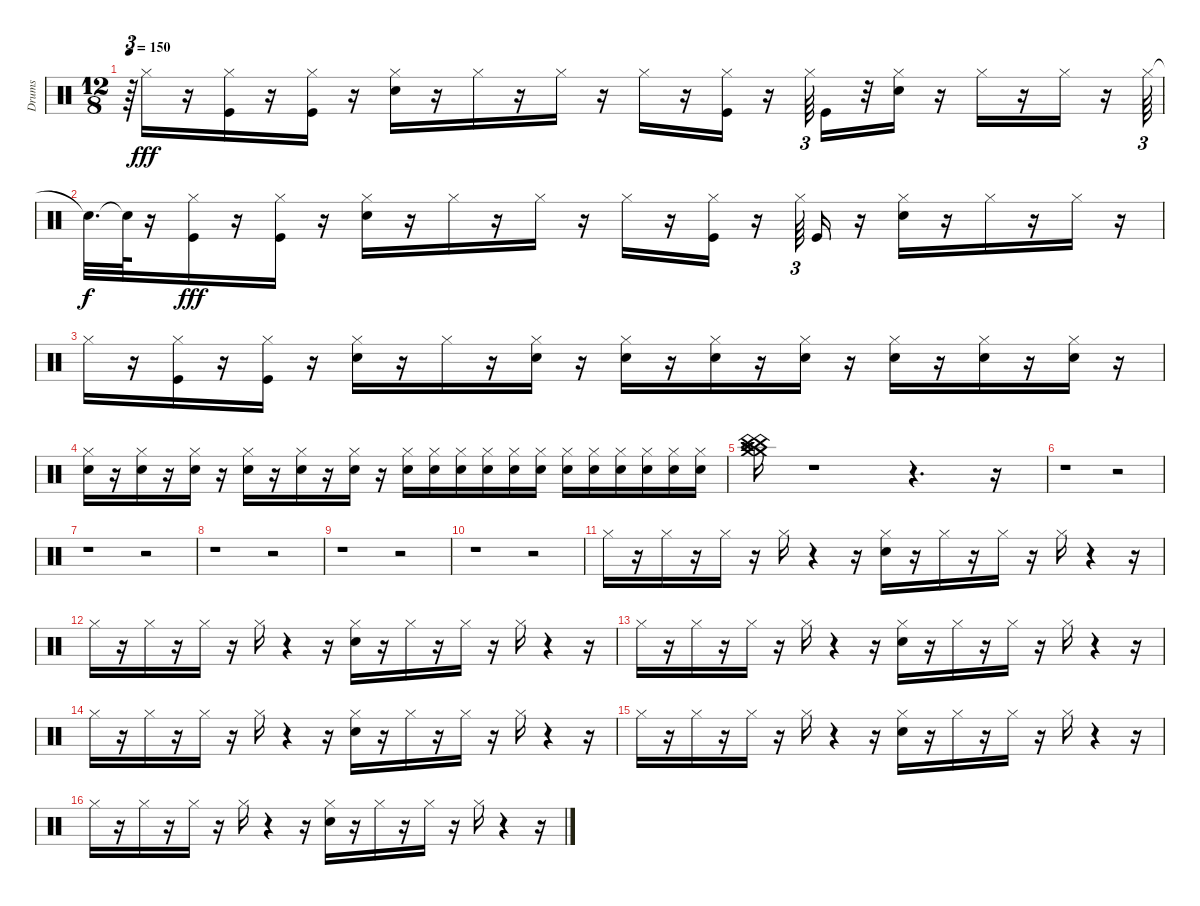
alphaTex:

\track ("Drums" "Drums") {instrument percussion}
\staff {score}
\articulation defaults
\ts (12 8)
\tempo 150
\clef neutral
\ks c
r.64{tu (3 2) dy fff} "Hi-Hat (closed)".16 r.16 ("Hi-Hat (closed)" "Kick (hit)").16 r.16 ("Hi-Hat (closed)" "Kick (hit)").16 r.16 ("Hi-Hat (closed)" "Snare (hit) 2").16 r.16 "Hi-Hat (closed)".16 r.16 "Hi-Hat (closed)".16 r.16 "Hi-Hat (closed)".16 r.16 ("Hi-Hat (closed)" "Kick (hit)").16 r.16 "Hi-Hat (closed)".64{tu (3 2)} "Kick (hit)".16 r.32 ("Hi-Hat (closed)" "Snare (hit) 2").16 r.16 "Hi-Hat (closed)".16 r.16 "Hi-Hat (closed)".16 r.16 "Hi-Hat (closed)".64{tu (3 2)} |
"Snare (hit)"{t}.32{d dy f} "Snare (hit)"{t}.64 r.16 ("Hi-Hat (closed)" "Kick (hit)").16{dy fff} r.16 ("Hi-Hat (closed)" "Kick (hit)").16 r.16 ("Hi-Hat (closed)" "Snare (hit) 2").16 r.16 "Hi-Hat (closed)".16 r.16 "Hi-Hat (closed)".16 r.16 "Hi-Hat (closed)".16 r.16 ("Hi-Hat (closed)" "Kick (hit)").16 r.16 "Hi-Hat (closed)".64{tu (3 2)} "Kick (hit)".16 r.16 ("Hi-Hat (closed)" "Snare (hit) 2").16 r.16 "Hi-Hat (closed)".16 r.16 "Hi-Hat (closed)".16 r.16 |
"Hi-Hat (closed)".16 r.16 ("Hi-Hat (closed)" "Kick (hit)").16 r.16 ("Hi-Hat (closed)" "Kick (hit)").16 r.16 ("Hi-Hat (closed)" "Snare (hit) 2").16 r.16 "Hi-Hat (closed)".16 r.16 ("Hi-Hat (closed)" "Snare (hit) 2").16 r.16 ("Snare (hit) 2" "Hi-Hat (closed)").16 r.16 ("Hi-Hat (closed)" "Snare (hit) 2").16 r.16 ("Snare (hit) 2" "Hi-Hat (closed)").16 r.16 ("Hi-Hat (closed)" "Snare (hit) 2").16 r.16 ("Snare (hit) 2" "Hi-Hat (closed)").16 r.16 ("Snare (hit) 2" "Hi-Hat (closed)").16 r.16 |
("Snare (hit) 2" "Hi-Hat (closed)").16 r.16 ("Hi-Hat (closed)" "Snare (hit) 2").16 r.16 ("Snare (hit) 2" "Hi-Hat (closed)").16 r.16 ("Snare (hit) 2" "Hi-Hat (closed)").16 r.16 ("Hi-Hat (closed)" "Snare (hit) 2").16 r.16 ("Hi-Hat (closed)" "Snare (hit) 2").16 r.16 ("Snare (hit) 2" "Hi-Hat (closed)").16 ("Snare (hit) 2" "Hi-Hat (closed)").16 ("Hi-Hat (closed)" "Snare (hit) 2").16 ("Snare (hit) 2" "Hi-Hat (closed)").16 ("Hi-Hat (closed)" "Snare (hit) 2").16 ("Hi-Hat (closed)" "Snare (hit) 2").16 ("Hi-Hat (closed)" "Snare (hit) 2").16 ("Snare (hit) 2" "Hi-Hat (closed)").16 ("Snare (hit) 2" "Hi-Hat (closed)").16 ("Snare (hit) 2" "Hi-Hat (closed)").16 ("Snare (hit) 2" "Hi-Hat (closed)").16 ("Snare (hit) 2" "Hi-Hat (closed)").16 |
("Crash high (hit)" "Crash high (hit)" "China (hit)" "China (hit)" "Crash medium (hit)" "Crash medium (hit)").16 r.1 r.4{d} r.16 |
r.1 r.2 |
r.1 r.2 |
r.1 r.2 |
r.1 r.2 |
r.1 r.2 |
"Hi-Hat (closed)".16 r.16 "Hi-Hat (closed)".16 r.16 "Hi-Hat (closed)".16 r.16 "Hi-Hat (closed)".16 r.4 r.16 ("Electric Snare (hit)" "Hi-Hat (closed)").16 r.16 "Hi-Hat (closed)".16 r.16 "Hi-Hat (closed)".16 r.16 "Hi-Hat (closed)".16 r.4 r.16 |
"Hi-Hat (closed)".16 r.16 "Hi-Hat (closed)".16 r.16 "Hi-Hat (closed)".16 r.16 "Hi-Hat (closed)".16 r.4 r.16 ("Electric Snare (hit)" "Hi-Hat (closed)").16 r.16 "Hi-Hat (closed)".16 r.16 "Hi-Hat (closed)".16 r.16 "Hi-Hat (closed)".16 r.4 r.16 |
"Hi-Hat (closed)".16 r.16 "Hi-Hat (closed)".16 r.16 "Hi-Hat (closed)".16 r.16 "Hi-Hat (closed)".16 r.4 r.16 ("Electric Snare (hit)" "Hi-Hat (closed)").16 r.16 "Hi-Hat (closed)".16 r.16 "Hi-Hat (closed)".16 r.16 "Hi-Hat (closed)".16 r.4 r.16 |
"Hi-Hat (closed)".16 r.16 "Hi-Hat (closed)".16 r.16 "Hi-Hat (closed)".16 r.16 "Hi-Hat (closed)".16 r.4 r.16 ("Electric Snare (hit)" "Hi-Hat (closed)").16 r.16 "Hi-Hat (closed)".16 r.16 "Hi-Hat (closed)".16 r.16 "Hi-Hat (closed)".16 r.4 r.16 |
"Hi-Hat (closed)".16 r.16 "Hi-Hat (closed)".16 r.16 "Hi-Hat (closed)".16 r.16 "Hi-Hat (closed)".16 r.4 r.16 ("Electric Snare (hit)" "Hi-Hat (closed)").16 r.16 "Hi-Hat (closed)".16 r.16 "Hi-Hat (closed)".16 r.16 "Hi-Hat (closed)".16 r.4 r.16 |
"Hi-Hat (closed)".16 r.16 "Hi-Hat (closed)".16 r.16 "Hi-Hat (closed)".16 r.16 "Hi-Hat (closed)".16 r.4 r.16 ("Electric Snare (hit)" "Hi-Hat (closed)").16 r.16 "Hi-Hat (closed)".16 r.16 "Hi-Hat (closed)".16 r.16 "Hi-Hat (closed)".16 r.4 r.16
